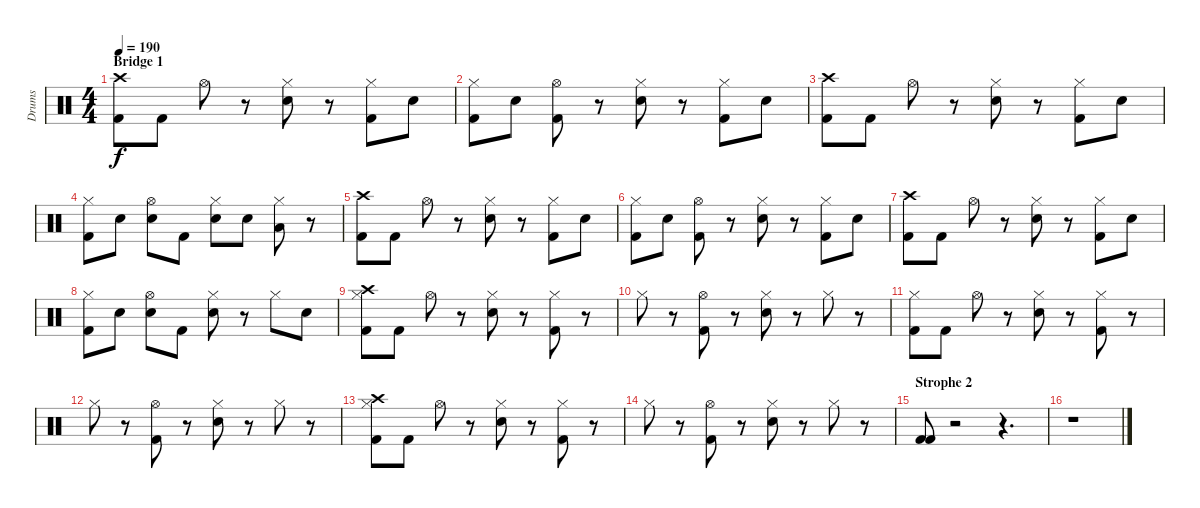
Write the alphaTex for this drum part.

\track ("Drums" "Drums") {instrument percussion}
\staff {score}
\articulation defaults
\ts (4 4)
\section ("" "Bridge 1")
\tempo 190
\clef neutral
\ks c
("Crash high (hit)" "Kick (hit) 2").8{dy f} "Kick (hit) 2".8 "Hi-Hat (open)".8 r.8 ("Hi-Hat (closed)" "Electric Snare (hit)").8 r.8 ("Hi-Hat (closed)" "Kick (hit) 2").8 "Electric Snare (hit)".8 |
("Hi-Hat (closed)" "Kick (hit) 2").8 "Electric Snare (hit)".8 ("Hi-Hat (open)" "Kick (hit) 2").8 r.8 ("Hi-Hat (closed)" "Electric Snare (hit)").8 r.8 ("Hi-Hat (closed)" "Kick (hit) 2").8 "Electric Snare (hit)".8 |
("Crash high (hit)" "Kick (hit) 2").8 "Kick (hit) 2".8 "Hi-Hat (open)".8 r.8 ("Hi-Hat (closed)" "Electric Snare (hit)").8 r.8 ("Hi-Hat (closed)" "Kick (hit) 2").8 "Electric Snare (hit)".8 |
("Hi-Hat (closed)" "Kick (hit) 2").8 "Electric Snare (hit)".8 ("Hi-Hat (open)" "Electric Snare (hit)").8 "Kick (hit) 2".8 ("Hi-Hat (closed)" "Electric Snare (hit)").8 "Electric Snare (hit)".8 ("Hi-Hat (closed)" "Low Floor Tom (hit)").8 r.8 |
("Crash high (hit)" "Kick (hit) 2").8 "Kick (hit) 2".8 "Hi-Hat (open)".8 r.8 ("Hi-Hat (closed)" "Electric Snare (hit)").8 r.8 ("Hi-Hat (closed)" "Kick (hit) 2").8 "Electric Snare (hit)".8 |
("Hi-Hat (closed)" "Kick (hit) 2").8 "Electric Snare (hit)".8 ("Hi-Hat (open)" "Kick (hit) 2").8 r.8 ("Hi-Hat (closed)" "Electric Snare (hit)").8 r.8 ("Hi-Hat (closed)" "Kick (hit) 2").8 "Electric Snare (hit)".8 |
("Crash high (hit)" "Kick (hit) 2").8 "Kick (hit) 2".8 "Hi-Hat (open)".8 r.8 ("Hi-Hat (closed)" "Electric Snare (hit)").8 r.8 ("Hi-Hat (closed)" "Kick (hit) 2").8 "Electric Snare (hit)".8 |
("Hi-Hat (closed)" "Kick (hit) 2").8 "Electric Snare (hit)".8 ("Hi-Hat (open)" "Electric Snare (hit)").8 "Kick (hit) 2".8 ("Hi-Hat (closed)" "Electric Snare (hit)").8 r.8 "Hi-Hat (closed)".8 "Electric Snare (hit)".8 |
("Crash high (hit)" "Hi-Hat (closed)" "Kick (hit) 2").8 "Kick (hit) 2".8 "Hi-Hat (open)".8 r.8 ("Hi-Hat (closed)" "Electric Snare (hit)").8 r.8 ("Hi-Hat (closed)" "Kick (hit) 2").8 r.8 |
"Hi-Hat (closed)".8 r.8 ("Hi-Hat (open)" "Kick (hit) 2").8 r.8 ("Hi-Hat (closed)" "Electric Snare (hit)").8 r.8 "Hi-Hat (closed)".8 r.8 |
("Hi-Hat (closed)" "Kick (hit) 2").8 "Kick (hit) 2".8 "Hi-Hat (open)".8 r.8 ("Hi-Hat (closed)" "Electric Snare (hit)").8 r.8 ("Hi-Hat (closed)" "Kick (hit) 2").8 r.8 |
"Hi-Hat (closed)".8 r.8 ("Hi-Hat (open)" "Kick (hit) 2").8 r.8 ("Hi-Hat (closed)" "Electric Snare (hit)").8 r.8 "Hi-Hat (closed)".8 r.8 |
("Crash high (hit)" "Hi-Hat (closed)" "Kick (hit) 2").8 "Kick (hit) 2".8 "Hi-Hat (open)".8 r.8 ("Hi-Hat (closed)" "Electric Snare (hit)").8 r.8 ("Hi-Hat (closed)" "Kick (hit) 2").8 r.8 |
"Hi-Hat (closed)".8 r.8 ("Hi-Hat (open)" "Kick (hit) 2").8 r.8 ("Hi-Hat (closed)" "Electric Snare (hit)").8 r.8 "Hi-Hat (closed)".8 r.8 |
\section ("" "Strophe 2")
("Kick (hit) 2" "Kick (hit) 2").8 r.2 r.4{d} |
r.1
